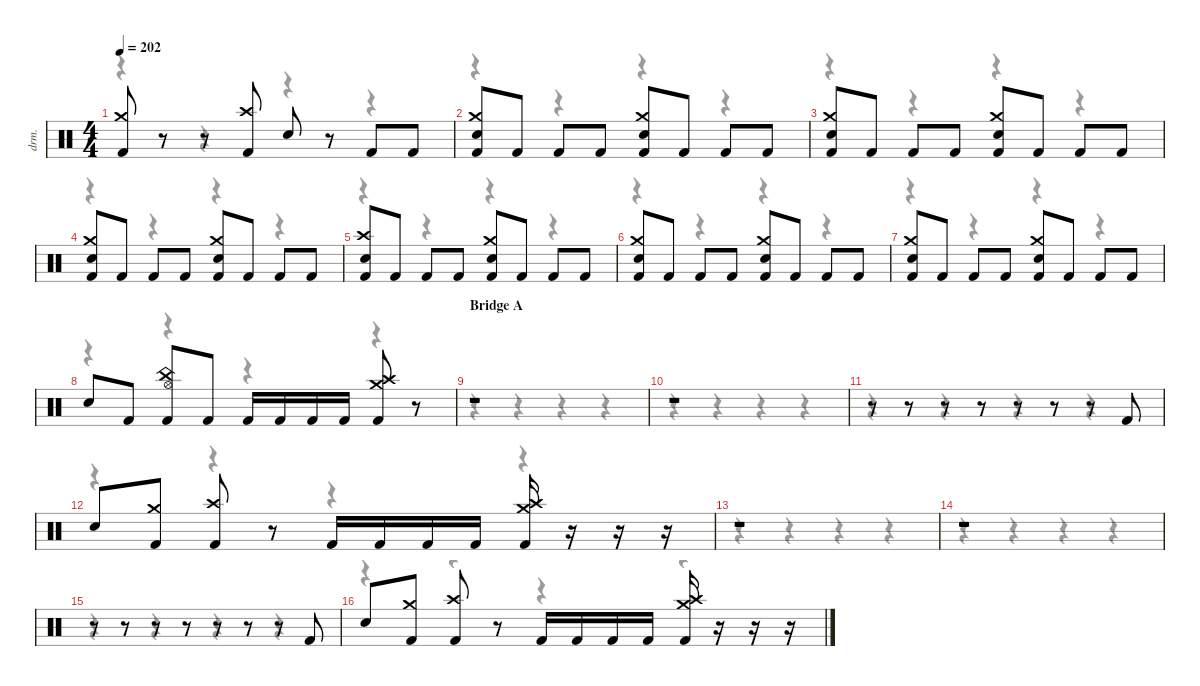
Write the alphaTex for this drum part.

\defaultSystemsLayout 4
\hideDynamics
\bracketExtendMode nobrackets
\track ("Alex Ballew" "drm.") {instrument percussion}
\staff {score}
\articulation defaults
\voice
\ts (4 4)
\tempo 202
\clef neutral
\ks c
("Crash medium (hit)" "Kick (hit) 2").8{dy f beam Up} r.8{beam Up} r.8{beam Up} ("Crash high (hit)" "Kick (hit) 2").8{beam Up} "Snare (hit) 2".8{beam Up} r.8{beam Up} "Kick (hit) 2".8{beam Up} "Kick (hit) 2".8{beam Up} |
("Crash medium (hit)" "Snare (hit) 2" "Kick (hit) 2").8{beam Up} "Kick (hit) 2".8{beam Up} "Kick (hit) 2".8{beam Up} "Kick (hit) 2".8{beam Up} ("Crash medium (hit)" "Snare (hit) 2" "Kick (hit) 2").8{beam Up} "Kick (hit) 2".8{beam Up} "Kick (hit) 2".8{beam Up} "Kick (hit) 2".8{beam Up} |
("Crash medium (hit)" "Snare (hit) 2" "Kick (hit) 2").8{beam Up} "Kick (hit) 2".8{beam Up} "Kick (hit) 2".8{beam Up} "Kick (hit) 2".8{beam Up} ("Crash medium (hit)" "Snare (hit) 2" "Kick (hit) 2").8{beam Up} "Kick (hit) 2".8{beam Up} "Kick (hit) 2".8{beam Up} "Kick (hit) 2".8{beam Up} |
("Crash medium (hit)" "Snare (hit) 2" "Kick (hit) 2").8{beam Up} "Kick (hit) 2".8{beam Up} "Kick (hit) 2".8{beam Up} "Kick (hit) 2".8{beam Up} ("Crash medium (hit)" "Snare (hit) 2" "Kick (hit) 2").8{beam Up} "Kick (hit) 2".8{beam Up} "Kick (hit) 2".8{beam Up} "Kick (hit) 2".8{beam Up} |
("Crash high (hit)" "Snare (hit) 2" "Kick (hit) 2").8{beam Up} "Kick (hit) 2".8{beam Up} "Kick (hit) 2".8{beam Up} "Kick (hit) 2".8{beam Up} ("Crash medium (hit)" "Snare (hit) 2" "Kick (hit) 2").8{beam Up} "Kick (hit) 2".8{beam Up} "Kick (hit) 2".8{beam Up} "Kick (hit) 2".8{beam Up} |
("Crash medium (hit)" "Snare (hit) 2" "Kick (hit) 2").8{beam Up} "Kick (hit) 2".8{beam Up} "Kick (hit) 2".8{beam Up} "Kick (hit) 2".8{beam Up} ("Crash medium (hit)" "Snare (hit) 2" "Kick (hit) 2").8{beam Up} "Kick (hit) 2".8{beam Up} "Kick (hit) 2".8{beam Up} "Kick (hit) 2".8{beam Up} |
("Crash medium (hit)" "Snare (hit) 2" "Kick (hit) 2").8{beam Up} "Kick (hit) 2".8{beam Up} "Kick (hit) 2".8{beam Up} "Kick (hit) 2".8{beam Up} ("Crash medium (hit)" "Snare (hit) 2" "Kick (hit) 2").8{beam Up} "Kick (hit) 2".8{beam Up} "Kick (hit) 2".8{beam Up} "Kick (hit) 2".8{beam Up} |
"Snare (hit) 2".8{beam Up} "Kick (hit) 2".8{beam Up} ("China (hit)" "Hi-Hat (open)" "Kick (hit) 2").8{beam Up} "Kick (hit) 2".8{beam Up} "Kick (hit) 2".16{beam Up} "Kick (hit) 2".16{beam Up} "Kick (hit) 2".16{beam Up} "Kick (hit) 2".16{beam Up} ("Crash medium (hit)" "Crash high (hit)" "Kick (hit) 2").8{beam Up} r.8{beam Up} |
\section ("" "Bridge A")
r.1{beam Up} |
r.1{beam Up} |
r.8{beam Up} r.8{beam Up} r.8{beam Up} r.8{beam Up} r.8{beam Up} r.8{beam Up} r.8{beam Up} "Kick (hit) 2".8{beam Up} |
"Snare (hit) 2".8{beam Up} ("Crash medium (hit)" "Kick (hit) 2").8{beam Up} ("Crash high (hit)" "Kick (hit) 2").8{beam Up} r.8{beam Up} "Kick (hit) 2".16{beam Up} "Kick (hit) 2".16{beam Up} "Kick (hit) 2".16{beam Up} "Kick (hit) 2".16{beam Up} ("Crash medium (hit)" "Crash high (hit)" "Kick (hit) 2").16{beam Up} r.16{beam Up} r.16{beam Up} r.16{beam Up} |
r.1{beam Up} |
r.1{beam Up} |
r.8{beam Up} r.8{beam Up} r.8{beam Up} r.8{beam Up} r.8{beam Up} r.8{beam Up} r.8{beam Up} "Kick (hit) 2".8{beam Up} |
"Snare (hit) 2".8{beam Up} ("Crash medium (hit)" "Kick (hit) 2").8{beam Up} ("Crash high (hit)" "Kick (hit) 2").8{beam Up} r.8{beam Up} "Kick (hit) 2".16{beam Up} "Kick (hit) 2".16{beam Up} "Kick (hit) 2".16{beam Up} "Kick (hit) 2".16{beam Up} ("Crash medium (hit)" "Crash high (hit)" "Kick (hit) 2").16{beam Up} r.16{beam Up} r.16{beam Up} r.16{beam Up}
\voice
\clef neutral
\ottava regular
\simile none
\ks c
r.4{dy mf beam Down} r.4{beam Down} r.4{beam Down} r.4{beam Down} |
r.4{beam Down} r.4{beam Down} r.4{beam Down} r.4{beam Down} |
r.4{beam Down} r.4{beam Down} r.4{beam Down} r.4{beam Down} |
r.4{beam Down} r.4{beam Down} r.4{beam Down} r.4{beam Down} |
r.4{beam Down} r.4{beam Down} r.4{beam Down} r.4{beam Down} |
r.4{beam Down} r.4{beam Down} r.4{beam Down} r.4{beam Down} |
r.4{beam Down} r.4{beam Down} r.4{beam Down} r.4{beam Down} |
r.4{beam Down} r.4{beam Down} r.4{beam Down} r.4{beam Down} |
r.4{beam Down} r.4{beam Down} r.4{beam Down} r.4{beam Down} |
r.4{beam Down} r.4{beam Down} r.4{beam Down} r.4{beam Down} |
r.4{beam Down} r.4{beam Down} r.4{beam Down} r.4{beam Down} |
r.4{beam Down} r.4{beam Down} r.4{beam Down} r.4{beam Down} |
r.4{beam Down} r.4{beam Down} r.4{beam Down} r.4{beam Down} |
r.4{beam Down} r.4{beam Down} r.4{beam Down} r.4{beam Down} |
r.4{beam Down} r.4{beam Down} r.4{beam Down} r.4{beam Down} |
r.4{beam Down} r.4{beam Down} r.4{beam Down} r.4{beam Down}
